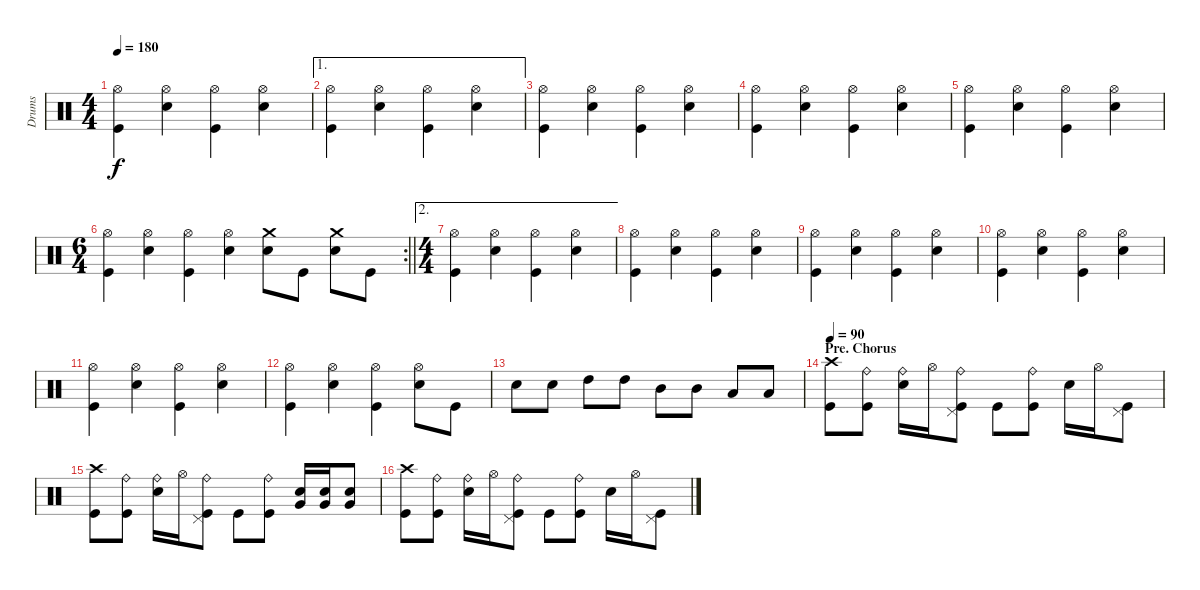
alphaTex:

\track ("Drums" "Drums") {instrument percussion}
\staff {score}
\articulation defaults
\ts (4 4)
\tempo 180
\clef neutral
\ks c
("Hi-Hat (open)" "Kick (hit)").4{dy f} ("Hi-Hat (open)" "Electric Snare (hit)").4 ("Hi-Hat (open)" "Kick (hit)").4 ("Hi-Hat (open)" "Electric Snare (hit)").4 |
\ae 1
("Hi-Hat (open)" "Kick (hit)").4 ("Hi-Hat (open)" "Electric Snare (hit)").4 ("Hi-Hat (open)" "Kick (hit)").4 ("Hi-Hat (open)" "Electric Snare (hit)").4 |
("Hi-Hat (open)" "Kick (hit)").4 ("Hi-Hat (open)" "Electric Snare (hit)").4 ("Hi-Hat (open)" "Kick (hit)").4 ("Hi-Hat (open)" "Electric Snare (hit)").4 |
("Hi-Hat (open)" "Kick (hit)").4 ("Hi-Hat (open)" "Electric Snare (hit)").4 ("Hi-Hat (open)" "Kick (hit)").4 ("Hi-Hat (open)" "Electric Snare (hit)").4 |
("Hi-Hat (open)" "Kick (hit)").4 ("Hi-Hat (open)" "Electric Snare (hit)").4 ("Hi-Hat (open)" "Kick (hit)").4 ("Hi-Hat (open)" "Electric Snare (hit)").4 |
\rc 2
\ts (6 4)
\barLineRight lightlight
("Hi-Hat (open)" "Kick (hit)").4 ("Hi-Hat (open)" "Electric Snare (hit)").4 ("Hi-Hat (open)" "Kick (hit)").4 ("Hi-Hat (open)" "Electric Snare (hit)").4 ("Crash medium (hit)" "Electric Snare (hit)").8 "Kick (hit)".8 ("Crash medium (hit)" "Electric Snare (hit)").8 "Kick (hit)".8 |
\ae 2
\ts (4 4)
("Hi-Hat (open)" "Kick (hit)").4 ("Hi-Hat (open)" "Electric Snare (hit)").4 ("Hi-Hat (open)" "Kick (hit)").4 ("Hi-Hat (open)" "Electric Snare (hit)").4 |
("Hi-Hat (open)" "Kick (hit)").4 ("Hi-Hat (open)" "Electric Snare (hit)").4 ("Hi-Hat (open)" "Kick (hit)").4 ("Hi-Hat (open)" "Electric Snare (hit)").4 |
("Hi-Hat (open)" "Kick (hit)").4 ("Hi-Hat (open)" "Electric Snare (hit)").4 ("Hi-Hat (open)" "Kick (hit)").4 ("Hi-Hat (open)" "Electric Snare (hit)").4 |
("Hi-Hat (open)" "Kick (hit)").4 ("Hi-Hat (open)" "Electric Snare (hit)").4 ("Hi-Hat (open)" "Kick (hit)").4 ("Hi-Hat (open)" "Electric Snare (hit)").4 |
("Hi-Hat (open)" "Kick (hit)").4 ("Hi-Hat (open)" "Electric Snare (hit)").4 ("Hi-Hat (open)" "Kick (hit)").4 ("Hi-Hat (open)" "Electric Snare (hit)").4 |
("Hi-Hat (open)" "Kick (hit)").4 ("Hi-Hat (open)" "Electric Snare (hit)").4 ("Hi-Hat (open)" "Kick (hit)").4 ("Hi-Hat (open)" "Electric Snare (hit)").8 "Kick (hit)".8 |
"Electric Snare (hit)".8 "Electric Snare (hit)".8 "High Tom (hit)".8 "High Tom (hit)".8 "Mid Tom (hit)".8 "Mid Tom (hit)".8 "Low Tom (hit)".8 "Low Tom (hit)".8 |
\section ("" "Pre. Chorus")
\tempo 90
("Crash high (hit)" "Kick (hit)").8 ("Ride (bell)" "Kick (hit)").8 ("Ride (bell)" "Electric Snare (hit)").16 "Hi-Hat (open)".16 ("Ride (bell)" "Pedal Hi-Hat (hit)" "Kick (hit)").8 "Kick (hit)".8 ("Ride (bell)" "Kick (hit)").8 "Electric Snare (hit)".16 "Hi-Hat (open)".16 ("Pedal Hi-Hat (hit)" "Kick (hit)").8 |
("Crash high (hit)" "Kick (hit)").8 ("Ride (bell)" "Kick (hit)").8 ("Ride (bell)" "Electric Snare (hit)").16 "Hi-Hat (open)".16 ("Ride (bell)" "Pedal Hi-Hat (hit)" "Kick (hit)").8 "Kick (hit)".8 ("Ride (bell)" "Kick (hit)").8 ("Very Low Tom (hit)" "Electric Snare (hit)").16 ("Very Low Tom (hit)" "Electric Snare (hit)").16 ("Very Low Tom (hit)" "Electric Snare (hit)").8 |
("Crash high (hit)" "Kick (hit)").8 ("Ride (bell)" "Kick (hit)").8 ("Ride (bell)" "Electric Snare (hit)").16 "Hi-Hat (open)".16 ("Ride (bell)" "Pedal Hi-Hat (hit)" "Kick (hit)").8 "Kick (hit)".8 ("Ride (bell)" "Kick (hit)").8 "Electric Snare (hit)".16 "Hi-Hat (open)".16 ("Pedal Hi-Hat (hit)" "Kick (hit)").8
